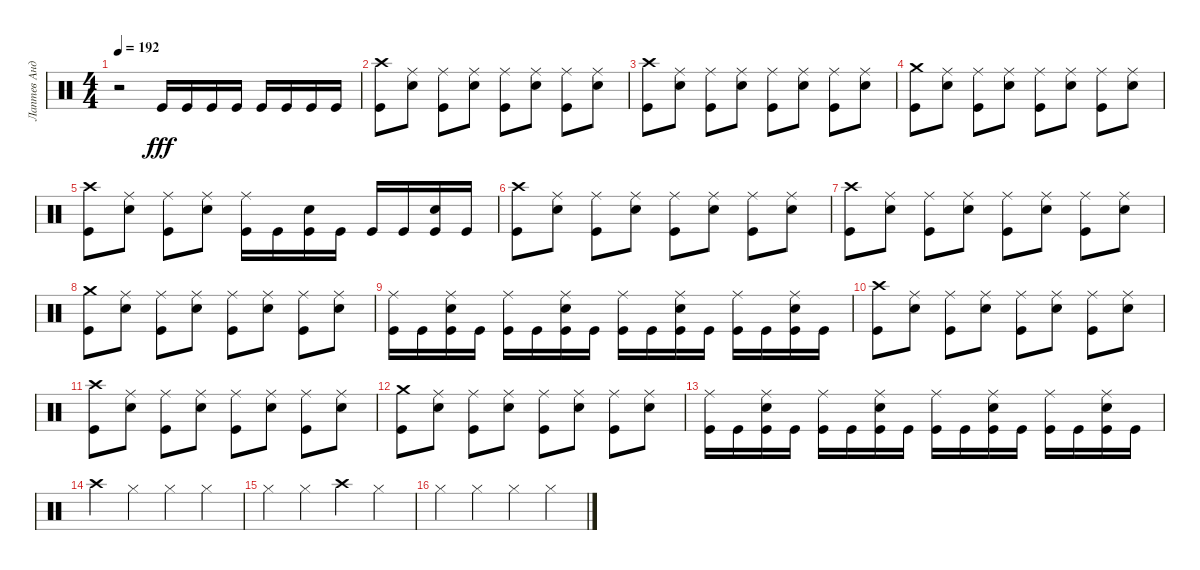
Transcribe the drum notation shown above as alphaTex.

\track ("Лаптев Андрей" "Лаптев Анд") {instrument percussion}
\staff {score}
\articulation defaults
\ts (4 4)
\tempo 192
\clef neutral
\ks c
r.2{dy fff} "Kick (hit)".16 "Kick (hit)".16 "Kick (hit)".16 "Kick (hit)".16 "Kick (hit)".16 "Kick (hit)".16 "Kick (hit)".16 "Kick (hit)".16 |
("Crash high (hit)" "Kick (hit)").8 ("Ride (middle)" "Electric Snare (hit)").8 ("Ride (middle)" "Kick (hit)").8 ("Electric Snare (hit)" "Ride (middle)").8 ("Ride (middle)" "Kick (hit)").8 ("Electric Snare (hit)" "Ride (middle)").8 ("Ride (middle)" "Kick (hit)").8 ("Ride (middle)" "Electric Snare (hit)").8 |
("Kick (hit)" "Crash high (hit)").8 ("Ride (middle)" "Electric Snare (hit)").8 ("Kick (hit)" "Ride (middle)").8 ("Ride (middle)" "Electric Snare (hit)").8 ("Ride (middle)" "Kick (hit)").8 ("Ride (middle)" "Electric Snare (hit)").8 ("Kick (hit)" "Ride (middle)").8 ("Electric Snare (hit)" "Ride (middle)").8 |
("Kick (hit)" "Crash medium (hit)").8 ("Electric Snare (hit)" "Ride (middle)").8 ("Ride (middle)" "Kick (hit)").8 ("Ride (middle)" "Electric Snare (hit)").8 ("Ride (middle)" "Kick (hit)").8 ("Ride (middle)" "Electric Snare (hit)").8 ("Kick (hit)" "Ride (middle)").8 ("Electric Snare (hit)" "Ride (middle)").8 |
("Kick (hit)" "Crash high (hit)").8 ("Ride (middle)" "Electric Snare (hit)").8 ("Ride (middle)" "Kick (hit)").8 ("Ride (middle)" "Electric Snare (hit)").8 ("Ride (middle)" "Kick (hit)").16 "Kick (hit)".16 ("Electric Snare (hit)" "Kick (hit)").16 "Kick (hit)".16 "Kick (hit)".16 "Kick (hit)".16 ("Kick (hit)" "Electric Snare (hit)").16 "Kick (hit)".16 |
("Kick (hit)" "Crash high (hit)").8 ("Ride (middle)" "Electric Snare (hit)").8 ("Ride (middle)" "Kick (hit)").8 ("Ride (middle)" "Electric Snare (hit)").8 ("Kick (hit)" "Ride (middle)").8 ("Electric Snare (hit)" "Ride (middle)").8 ("Ride (middle)" "Kick (hit)").8 ("Electric Snare (hit)" "Ride (middle)").8 |
("Crash high (hit)" "Kick (hit)").8 ("Ride (middle)" "Electric Snare (hit)").8 ("Ride (middle)" "Kick (hit)").8 ("Ride (middle)" "Electric Snare (hit)").8 ("Kick (hit)" "Ride (middle)").8 ("Electric Snare (hit)" "Ride (middle)").8 ("Kick (hit)" "Ride (middle)").8 ("Ride (middle)" "Electric Snare (hit)").8 |
("Crash medium (hit)" "Kick (hit)").8 ("Ride (middle)" "Electric Snare (hit)").8 ("Ride (middle)" "Kick (hit)").8 ("Ride (middle)" "Electric Snare (hit)").8 ("Ride (middle)" "Kick (hit)").8 ("Ride (middle)" "Electric Snare (hit)").8 ("Ride (middle)" "Kick (hit)").8 ("Electric Snare (hit)" "Ride (middle)").8 |
("Kick (hit)" "Ride (middle)").16 "Kick (hit)".16 ("Kick (hit)" "Ride (middle)" "Electric Snare (hit)").16 "Kick (hit)".16 ("Kick (hit)" "Ride (middle)").16 "Kick (hit)".16 ("Electric Snare (hit)" "Ride (middle)" "Kick (hit)").16 "Kick (hit)".16 ("Kick (hit)" "Ride (middle)").16 "Kick (hit)".16 ("Kick (hit)" "Ride (middle)" "Electric Snare (hit)").16 "Kick (hit)".16 ("Ride (middle)" "Kick (hit)").16 "Kick (hit)".16 ("Electric Snare (hit)" "Kick (hit)" "Ride (middle)").16 "Kick (hit)".16 |
("Crash high (hit)" "Kick (hit)").8 ("Ride (middle)" "Electric Snare (hit)").8 ("Ride (middle)" "Kick (hit)").8 ("Ride (middle)" "Electric Snare (hit)").8 ("Kick (hit)" "Ride (middle)").8 ("Electric Snare (hit)" "Ride (middle)").8 ("Kick (hit)" "Ride (middle)").8 ("Ride (middle)" "Electric Snare (hit)").8 |
("Kick (hit)" "Crash high (hit)").8 ("Ride (middle)" "Electric Snare (hit)").8 ("Ride (middle)" "Kick (hit)").8 ("Ride (middle)" "Electric Snare (hit)").8 ("Kick (hit)" "Ride (middle)").8 ("Electric Snare (hit)" "Ride (middle)").8 ("Kick (hit)" "Ride (middle)").8 ("Ride (middle)" "Electric Snare (hit)").8 |
("Crash medium (hit)" "Kick (hit)").8 ("Ride (middle)" "Electric Snare (hit)").8 ("Kick (hit)" "Ride (middle)").8 ("Electric Snare (hit)" "Ride (middle)").8 ("Kick (hit)" "Ride (middle)").8 ("Electric Snare (hit)" "Ride (middle)").8 ("Kick (hit)" "Ride (middle)").8 ("Electric Snare (hit)" "Ride (middle)").8 |
("Ride (middle)" "Kick (hit)").16 "Kick (hit)".16 ("Ride (middle)" "Kick (hit)" "Electric Snare (hit)").16 "Kick (hit)".16 ("Kick (hit)" "Ride (middle)").16 "Kick (hit)".16 ("Electric Snare (hit)" "Ride (middle)" "Kick (hit)").16 "Kick (hit)".16 ("Kick (hit)" "Ride (middle)").16 "Kick (hit)".16 ("Electric Snare (hit)" "Ride (middle)" "Kick (hit)").16 "Kick (hit)".16 ("Kick (hit)" "Ride (middle)").16 "Kick (hit)".16 ("Kick (hit)" "Electric Snare (hit)" "Ride (middle)").16 "Kick (hit)".16 |
"Crash high (hit)".4 "Hi-Hat (closed)".4 "Hi-Hat (closed)".4 "Hi-Hat (closed)".4 |
"Hi-Hat (closed)".4 "Hi-Hat (closed)".4 "Crash high (hit)".4 "Hi-Hat (closed)".4 |
"Hi-Hat (closed)".4 "Hi-Hat (closed)".4 "Hi-Hat (closed)".4 "Hi-Hat (closed)".4
